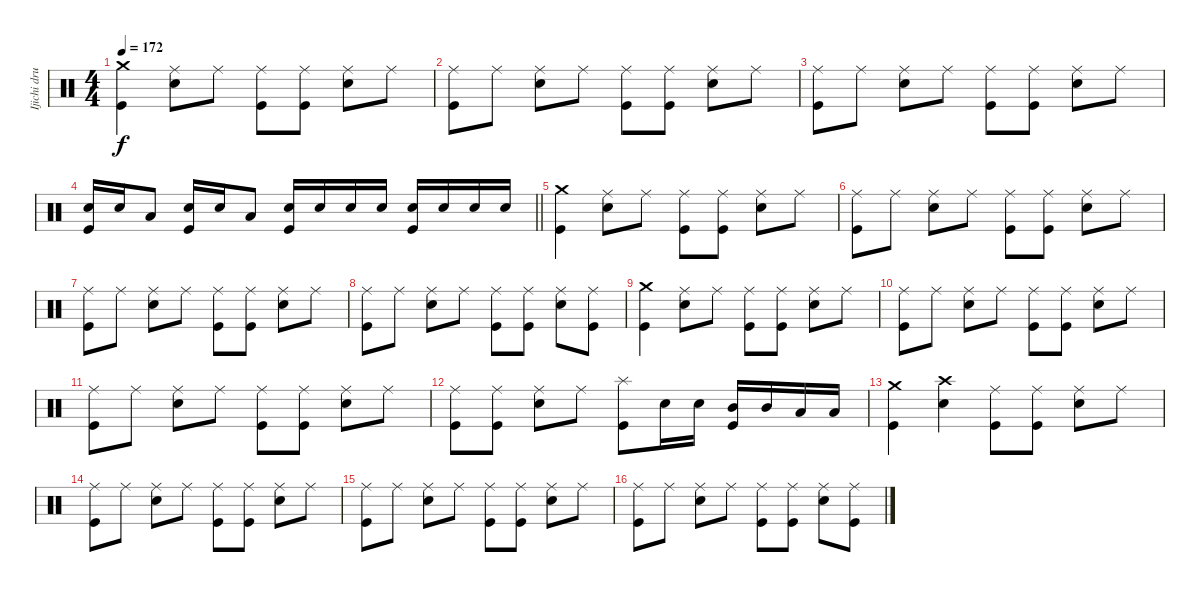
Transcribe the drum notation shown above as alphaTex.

\track ("Ijichi drums" "Ijichi dru") {instrument percussion}
\staff {score}
\articulation defaults
\ts (4 4)
\tempo 172
\clef neutral
\ks c
("Crash medium (hit)" "Kick (hit)").4{dy f} ("Ride (middle)" "Electric Snare (hit)").8 "Ride (middle)".8 ("Ride (middle)" "Kick (hit)").8 ("Ride (middle)" "Kick (hit)").8 ("Ride (middle)" "Electric Snare (hit)").8 "Ride (middle)".8 |
("Ride (middle)" "Kick (hit)").8 "Ride (middle)".8 ("Ride (middle)" "Electric Snare (hit)").8 "Ride (middle)".8 ("Ride (middle)" "Kick (hit)").8 ("Ride (middle)" "Kick (hit)").8 ("Ride (middle)" "Electric Snare (hit)").8 "Ride (middle)".8 |
("Ride (middle)" "Kick (hit)").8 "Ride (middle)".8 ("Ride (middle)" "Electric Snare (hit)").8 "Ride (middle)".8 ("Ride (middle)" "Kick (hit)").8 ("Ride (middle)" "Kick (hit)").8 ("Ride (middle)" "Electric Snare (hit)").8 "Ride (middle)".8 |
\barLineRight lightlight
("Electric Snare (hit)" "Kick (hit)").16 "Electric Snare (hit)".16 "Low Tom (hit)".8 ("Electric Snare (hit)" "Kick (hit)").16 "Electric Snare (hit)".16 "Low Tom (hit)".8 ("Electric Snare (hit)" "Kick (hit)").16 "Electric Snare (hit)".16 "Electric Snare (hit)".16 "Electric Snare (hit)".16 ("Electric Snare (hit)" "Kick (hit)").16 "Electric Snare (hit)".16 "Electric Snare (hit)".16 "Electric Snare (hit)".16 |
("Crash medium (hit)" "Kick (hit)").4 ("Ride (middle)" "Electric Snare (hit)").8 "Ride (middle)".8 ("Ride (middle)" "Kick (hit)").8 ("Ride (middle)" "Kick (hit)").8 ("Ride (middle)" "Electric Snare (hit)").8 "Ride (middle)".8 |
("Ride (middle)" "Kick (hit)").8 "Ride (middle)".8 ("Ride (middle)" "Electric Snare (hit)").8 "Ride (middle)".8 ("Ride (middle)" "Kick (hit)").8 ("Ride (middle)" "Kick (hit)").8 ("Ride (middle)" "Electric Snare (hit)").8 "Ride (middle)".8 |
("Ride (middle)" "Kick (hit)").8 "Ride (middle)".8 ("Ride (middle)" "Electric Snare (hit)").8 "Ride (middle)".8 ("Ride (middle)" "Kick (hit)").8 ("Ride (middle)" "Kick (hit)").8 ("Ride (middle)" "Electric Snare (hit)").8 "Ride (middle)".8 |
("Ride (middle)" "Kick (hit)").8 "Ride (middle)".8 ("Ride (middle)" "Electric Snare (hit)").8 "Ride (middle)".8 ("Ride (middle)" "Kick (hit)").8 ("Ride (middle)" "Kick (hit)").8 ("Ride (middle)" "Electric Snare (hit)").8 ("Ride (middle)" "Kick (hit)").8 |
("Crash medium (hit)" "Kick (hit)").4 ("Ride (middle)" "Electric Snare (hit)").8 "Ride (middle)".8 ("Ride (middle)" "Kick (hit)").8 ("Ride (middle)" "Kick (hit)").8 ("Ride (middle)" "Electric Snare (hit)").8 "Ride (middle)".8 |
("Ride (middle)" "Kick (hit)").8 "Ride (middle)".8 ("Ride (middle)" "Electric Snare (hit)").8 "Ride (middle)".8 ("Ride (middle)" "Kick (hit)").8 ("Ride (middle)" "Kick (hit)").8 ("Ride (middle)" "Electric Snare (hit)").8 "Ride (middle)".8 |
("Ride (middle)" "Kick (hit)").8 "Ride (middle)".8 ("Ride (middle)" "Electric Snare (hit)").8 "Ride (middle)".8 ("Ride (middle)" "Kick (hit)").8 ("Ride (middle)" "Kick (hit)").8 ("Ride (middle)" "Electric Snare (hit)").8 "Ride (middle)".8 |
("Ride (middle)" "Kick (hit)").8 ("Ride (middle)" "Kick (hit)").8 ("Ride (middle)" "Electric Snare (hit)").8 "Ride (middle)".8 ("Splash (hit)" "Kick (hit)").8 "Electric Snare (hit)".16 "Electric Snare (hit)".16 ("Mid Tom (hit)" "Kick (hit)").16 "Mid Tom (hit)".16 "Low Tom (hit)".16 "Low Tom (hit)".16 |
("Crash medium (hit)" "Kick (hit)").4 ("Crash high (hit)" "Electric Snare (hit)").4 ("Ride (middle)" "Kick (hit)").8 ("Ride (middle)" "Kick (hit)").8 ("Ride (middle)" "Electric Snare (hit)").8 "Ride (middle)".8 |
("Ride (middle)" "Kick (hit)").8 "Ride (middle)".8 ("Ride (middle)" "Electric Snare (hit)").8 "Ride (middle)".8 ("Ride (middle)" "Kick (hit)").8 ("Ride (middle)" "Kick (hit)").8 ("Ride (middle)" "Electric Snare (hit)").8 "Ride (middle)".8 |
("Ride (middle)" "Kick (hit)").8 "Ride (middle)".8 ("Ride (middle)" "Electric Snare (hit)").8 "Ride (middle)".8 ("Ride (middle)" "Kick (hit)").8 ("Ride (middle)" "Kick (hit)").8 ("Ride (middle)" "Electric Snare (hit)").8 "Ride (middle)".8 |
("Ride (middle)" "Kick (hit)").8 "Ride (middle)".8 ("Ride (middle)" "Electric Snare (hit)").8 "Ride (middle)".8 ("Ride (middle)" "Kick (hit)").8 ("Ride (middle)" "Kick (hit)").8 ("Ride (middle)" "Electric Snare (hit)").8 ("Ride (middle)" "Kick (hit)").8
